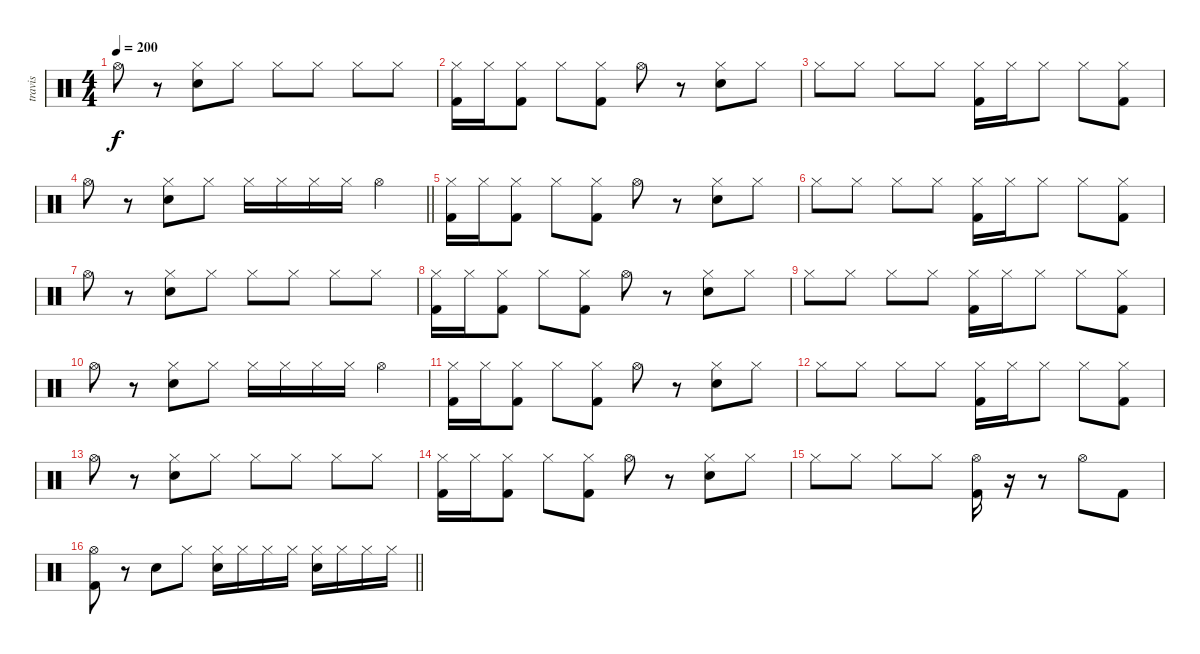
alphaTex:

\track ("travis" "travis") {instrument percussion}
\staff {score}
\articulation defaults
\ts (4 4)
\tempo 200
\clef neutral
\ks c "Hi-Hat (open)".8{dy f}
r.8 ("Hi-Hat (closed)" "Electric Snare (hit)").8 "Hi-Hat (closed)".8 "Hi-Hat (closed)".8 "Hi-Hat (closed)".8 "Hi-Hat (closed)".8 "Hi-Hat (closed)".8 |
("Hi-Hat (closed)" "Kick (hit) 2").16 "Hi-Hat (closed)".16 ("Hi-Hat (closed)" "Kick (hit) 2").8 "Hi-Hat (closed)".8 ("Hi-Hat (closed)" "Kick (hit) 2").8 "Hi-Hat (open)".8 r.8 ("Hi-Hat (closed)" "Electric Snare (hit)").8 "Hi-Hat (closed)".8 |
"Hi-Hat (closed)".8 "Hi-Hat (closed)".8 "Hi-Hat (closed)".8 "Hi-Hat (closed)".8 ("Hi-Hat (closed)" "Kick (hit) 2").16 "Hi-Hat (closed)".16 "Hi-Hat (closed)".8 "Hi-Hat (closed)".8 ("Hi-Hat (closed)" "Kick (hit) 2").8 |
\barLineRight lightlight "Hi-Hat (open)".8
r.8 ("Hi-Hat (closed)" "Electric Snare (hit)").8 "Hi-Hat (closed)".8 "Hi-Hat (closed)".16 "Hi-Hat (closed)".16 "Hi-Hat (closed)".16 "Hi-Hat (closed)".16 "Hi-Hat (open)".4 |
("Hi-Hat (closed)" "Kick (hit) 2").16 "Hi-Hat (closed)".16 ("Hi-Hat (closed)" "Kick (hit) 2").8 "Hi-Hat (closed)".8 ("Hi-Hat (closed)" "Kick (hit) 2").8 "Hi-Hat (open)".8 r.8 ("Hi-Hat (closed)" "Electric Snare (hit)").8 "Hi-Hat (closed)".8 |
"Hi-Hat (closed)".8 "Hi-Hat (closed)".8 "Hi-Hat (closed)".8 "Hi-Hat (closed)".8 ("Hi-Hat (closed)" "Kick (hit) 2").16 "Hi-Hat (closed)".16 "Hi-Hat (closed)".8 "Hi-Hat (closed)".8 ("Hi-Hat (closed)" "Kick (hit) 2").8 |
"Hi-Hat (open)".8 r.8 ("Hi-Hat (closed)" "Electric Snare (hit)").8 "Hi-Hat (closed)".8 "Hi-Hat (closed)".8 "Hi-Hat (closed)".8 "Hi-Hat (closed)".8 "Hi-Hat (closed)".8 |
("Hi-Hat (closed)" "Kick (hit) 2").16 "Hi-Hat (closed)".16 ("Hi-Hat (closed)" "Kick (hit) 2").8 "Hi-Hat (closed)".8 ("Hi-Hat (closed)" "Kick (hit) 2").8 "Hi-Hat (open)".8 r.8 ("Hi-Hat (closed)" "Electric Snare (hit)").8 "Hi-Hat (closed)".8 |
"Hi-Hat (closed)".8 "Hi-Hat (closed)".8 "Hi-Hat (closed)".8 "Hi-Hat (closed)".8 ("Hi-Hat (closed)" "Kick (hit) 2").16 "Hi-Hat (closed)".16 "Hi-Hat (closed)".8 "Hi-Hat (closed)".8 ("Hi-Hat (closed)" "Kick (hit) 2").8 |
"Hi-Hat (open)".8 r.8 ("Hi-Hat (closed)" "Electric Snare (hit)").8 "Hi-Hat (closed)".8 "Hi-Hat (closed)".16 "Hi-Hat (closed)".16 "Hi-Hat (closed)".16 "Hi-Hat (closed)".16 "Hi-Hat (open)".4 |
("Hi-Hat (closed)" "Kick (hit) 2").16 "Hi-Hat (closed)".16 ("Hi-Hat (closed)" "Kick (hit) 2").8 "Hi-Hat (closed)".8 ("Hi-Hat (closed)" "Kick (hit) 2").8 "Hi-Hat (open)".8 r.8 ("Hi-Hat (closed)" "Electric Snare (hit)").8 "Hi-Hat (closed)".8 |
"Hi-Hat (closed)".8 "Hi-Hat (closed)".8 "Hi-Hat (closed)".8 "Hi-Hat (closed)".8 ("Hi-Hat (closed)" "Kick (hit) 2").16 "Hi-Hat (closed)".16 "Hi-Hat (closed)".8 "Hi-Hat (closed)".8 ("Hi-Hat (closed)" "Kick (hit) 2").8 |
"Hi-Hat (open)".8 r.8 ("Hi-Hat (closed)" "Electric Snare (hit)").8 "Hi-Hat (closed)".8 "Hi-Hat (closed)".8 "Hi-Hat (closed)".8 "Hi-Hat (closed)".8 "Hi-Hat (closed)".8 |
("Hi-Hat (closed)" "Kick (hit) 2").16 "Hi-Hat (closed)".16 ("Hi-Hat (closed)" "Kick (hit) 2").8 "Hi-Hat (closed)".8 ("Hi-Hat (closed)" "Kick (hit) 2").8 "Hi-Hat (open)".8 r.8 ("Hi-Hat (closed)" "Electric Snare (hit)").8 "Hi-Hat (closed)".8 |
"Hi-Hat (closed)".8 "Hi-Hat (closed)".8 "Hi-Hat (closed)".8 "Hi-Hat (closed)".8 ("Hi-Hat (open)" "Kick (hit) 2").16 r.16 r.8 "Hi-Hat (open)".8 "Kick (hit) 2".8 |
\barLineRight lightlight
("Hi-Hat (open)" "Kick (hit) 2").8 r.8 "Electric Snare (hit)".8 "Hi-Hat (closed)".8 ("Hi-Hat (closed)" "Electric Snare (hit)").16 "Hi-Hat (closed)".16 "Hi-Hat (closed)".16 "Hi-Hat (closed)".16 ("Hi-Hat (closed)" "Electric Snare (hit)").16 "Hi-Hat (closed)".16 "Hi-Hat (closed)".16 "Hi-Hat (closed)".16
